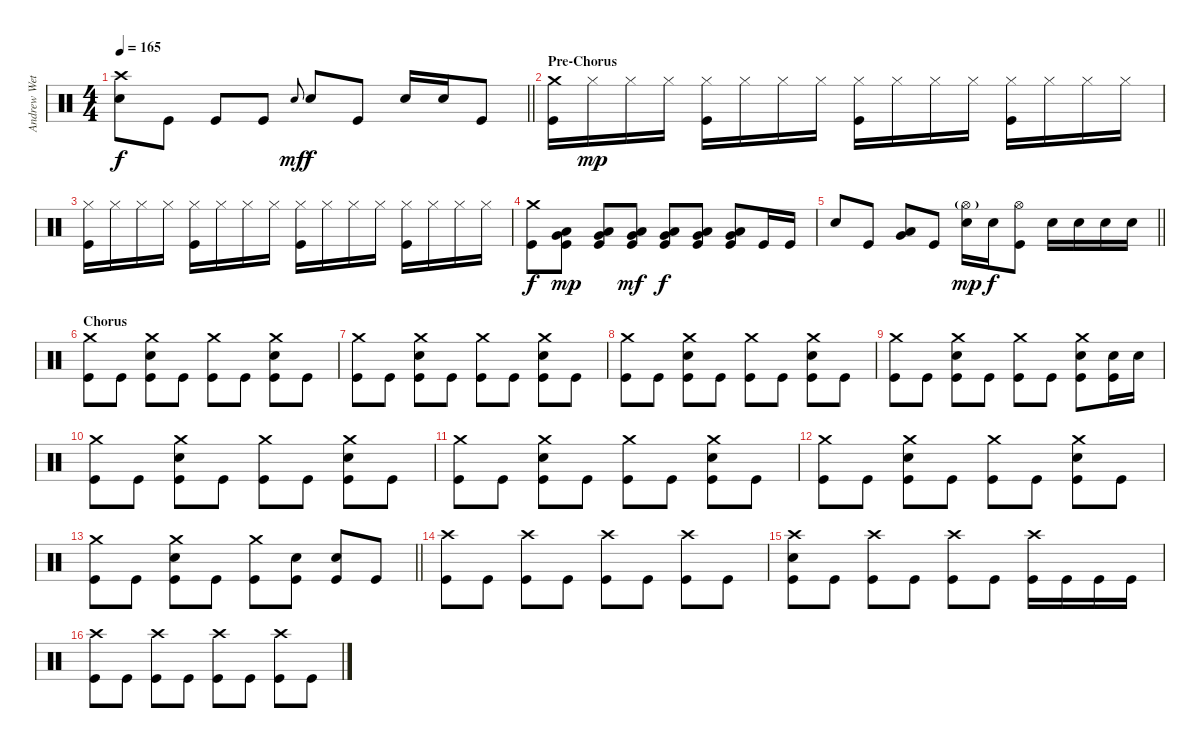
\track ("Andrew Wetzel" "Andrew Wet") {instrument percussion}
\staff {score}
\articulation defaults
\ts (4 4)
\tempo 165
\clef neutral
\barLineRight lightlight
\ks c
("Crash high (hit)" "Snare (hit) 2").8{dy f} "Kick (hit)".8 "Kick (hit)".8 "Kick (hit)".8 "Snare (hit) 2".8{gr onbeat dy mf} "Snare (hit) 2".8{dy f} "Kick (hit)".8 "Snare (hit) 2".16 "Snare (hit) 2".16 "Kick (hit)".8 |
\section ("" "Pre-Chorus")
("Crash medium (hit)" "Kick (hit)").16 "Hi-Hat (closed)".16{dy mp} "Hi-Hat (closed)".16 "Hi-Hat (closed)".16 ("Hi-Hat (closed)" "Kick (hit)").16 "Hi-Hat (closed)".16 "Hi-Hat (closed)".16 "Hi-Hat (closed)".16 ("Hi-Hat (closed)" "Kick (hit)").16 "Hi-Hat (closed)".16 "Hi-Hat (closed)".16 "Hi-Hat (closed)".16 ("Hi-Hat (closed)" "Kick (hit)").16 "Hi-Hat (closed)".16 "Hi-Hat (closed)".16 "Hi-Hat (closed)".16 |
("Hi-Hat (closed)" "Kick (hit)").16 "Hi-Hat (closed)".16 "Hi-Hat (closed)".16 "Hi-Hat (closed)".16 ("Hi-Hat (closed)" "Kick (hit)").16 "Hi-Hat (closed)".16 "Hi-Hat (closed)".16 "Hi-Hat (closed)".16 ("Hi-Hat (closed)" "Kick (hit)").16 "Hi-Hat (closed)".16 "Hi-Hat (closed)".16 "Hi-Hat (closed)".16 ("Hi-Hat (closed)" "Kick (hit)").16 "Hi-Hat (closed)".16 "Hi-Hat (closed)".16 "Hi-Hat (closed)".16 |
("Crash medium (hit)" "Kick (hit)").8{dy f} ("Low Tom (hit)" "Very Low Tom (hit)" "Kick (hit)").8{dy mp} ("Low Tom (hit)" "Very Low Tom (hit)" "Kick (hit)").8 ("Low Tom (hit)" "Very Low Tom (hit)" "Kick (hit)").8{dy mf} ("Low Tom (hit)" "Very Low Tom (hit)" "Kick (hit)").8{dy f} ("Low Tom (hit)" "Very Low Tom (hit)" "Kick (hit)").8 ("Low Tom (hit)" "Very Low Tom (hit)" "Kick (hit)").8 "Kick (hit)".16 "Kick (hit)".16 |
\barLineRight lightlight "Snare (hit) 2".8 "Kick (hit)".8
("Low Tom (hit)" "Very Low Tom (hit)").8 "Kick (hit)".8 ("Hi-Hat (open)"{g} "Snare (hit) 2").16{dy mp} "Snare (hit) 2".16{dy f} ("Hi-Hat (open)" "Kick (hit)").8 "Snare (hit) 2".16 "Snare (hit) 2".16 "Snare (hit) 2".16 "Snare (hit) 2".16 |
\section ("" "Chorus")
("Crash medium (hit)" "Kick (hit)").8 "Kick (hit)".8 ("Crash medium (hit)" "Snare (hit) 2" "Kick (hit)").8 "Kick (hit)".8 ("Crash medium (hit)" "Kick (hit)").8 "Kick (hit)".8 ("Crash medium (hit)" "Snare (hit) 2" "Kick (hit)").8 "Kick (hit)".8 |
("Crash medium (hit)" "Kick (hit)").8 "Kick (hit)".8 ("Crash medium (hit)" "Snare (hit) 2" "Kick (hit)").8 "Kick (hit)".8 ("Crash medium (hit)" "Kick (hit)").8 "Kick (hit)".8 ("Crash medium (hit)" "Snare (hit) 2" "Kick (hit)").8 "Kick (hit)".8 |
("Crash medium (hit)" "Kick (hit)").8 "Kick (hit)".8 ("Crash medium (hit)" "Snare (hit) 2" "Kick (hit)").8 "Kick (hit)".8 ("Crash medium (hit)" "Kick (hit)").8 "Kick (hit)".8 ("Crash medium (hit)" "Snare (hit) 2" "Kick (hit)").8 "Kick (hit)".8 |
("Crash medium (hit)" "Kick (hit)").8 "Kick (hit)".8 ("Crash medium (hit)" "Snare (hit) 2" "Kick (hit)").8 "Kick (hit)".8 ("Crash medium (hit)" "Kick (hit)").8 "Kick (hit)".8 ("Crash medium (hit)" "Snare (hit) 2" "Kick (hit)").8 ("Snare (hit) 2" "Kick (hit)").16 "Snare (hit) 2".16 |
("Crash medium (hit)" "Kick (hit)").8 "Kick (hit)".8 ("Crash medium (hit)" "Snare (hit) 2" "Kick (hit)").8 "Kick (hit)".8 ("Crash medium (hit)" "Kick (hit)").8 "Kick (hit)".8 ("Crash medium (hit)" "Snare (hit) 2" "Kick (hit)").8 "Kick (hit)".8 |
("Crash medium (hit)" "Kick (hit)").8 "Kick (hit)".8 ("Crash medium (hit)" "Snare (hit) 2" "Kick (hit)").8 "Kick (hit)".8 ("Crash medium (hit)" "Kick (hit)").8 "Kick (hit)".8 ("Crash medium (hit)" "Snare (hit) 2" "Kick (hit)").8 "Kick (hit)".8 |
("Crash medium (hit)" "Kick (hit)").8 "Kick (hit)".8 ("Crash medium (hit)" "Snare (hit) 2" "Kick (hit)").8 "Kick (hit)".8 ("Crash medium (hit)" "Kick (hit)").8 "Kick (hit)".8 ("Crash medium (hit)" "Snare (hit) 2" "Kick (hit)").8 "Kick (hit)".8 |
\barLineRight lightlight
("Crash medium (hit)" "Kick (hit)").8 "Kick (hit)".8 ("Crash medium (hit)" "Snare (hit) 2" "Kick (hit)").8 "Kick (hit)".8 ("Crash medium (hit)" "Kick (hit)").8 ("Snare (hit) 2" "Kick (hit)").8 ("Snare (hit) 2" "Kick (hit)").8 "Kick (hit)".8 |
("Crash high (hit)" "Kick (hit)").8 "Kick (hit)".8 ("Crash high (hit)" "Kick (hit)").8 "Kick (hit)".8 ("Crash high (hit)" "Kick (hit)").8 "Kick (hit)".8 ("Crash high (hit)" "Kick (hit)").8 "Kick (hit)".8 |
("Crash high (hit)" "Snare (hit) 2" "Kick (hit)").8 "Kick (hit)".8 ("Crash high (hit)" "Kick (hit)").8 "Kick (hit)".8 ("Crash high (hit)" "Kick (hit)").8 "Kick (hit)".8 ("Crash high (hit)" "Kick (hit)").16 "Kick (hit)".16 "Kick (hit)".16 "Kick (hit)".16 |
("Crash high (hit)" "Kick (hit)").8 "Kick (hit)".8 ("Crash high (hit)" "Kick (hit)").8 "Kick (hit)".8 ("Crash high (hit)" "Kick (hit)").8 "Kick (hit)".8 ("Crash high (hit)" "Kick (hit)").8 "Kick (hit)".8
